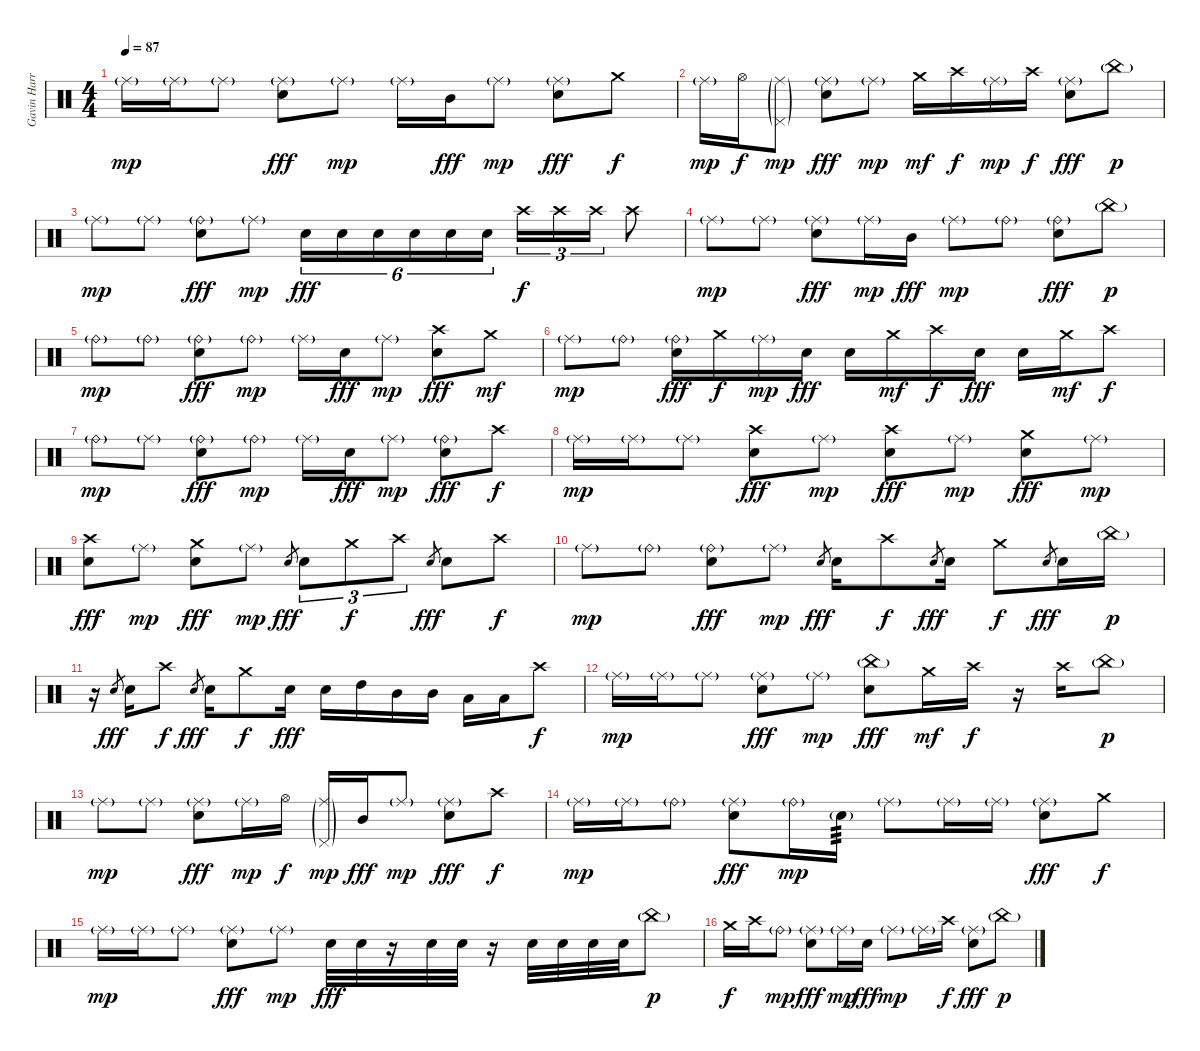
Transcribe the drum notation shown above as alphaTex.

\track ("Gavin Harrison Drums" "Gavin Harr") {instrument percussion}
\staff {score}
\articulation defaults
\ts (4 4)
\tempo 87
\clef neutral
\ks aminor "Ride (middle)"{g}.16{dy mp} "Ride (middle)"{g}.16 "Ride (middle)"{g}.8
("Ride (middle)"{g} "Electric Snare (hit)").8{dy fff} "Ride (middle)"{g}.8{dy mp} "Ride (middle)"{g}.16 "Mid Tom (hit)".16{dy fff} "Ride (middle)"{g}.8{dy mp} ("Ride (middle)"{g} "Electric Snare (hit)").8{dy fff} "Crash medium (hit)".8{dy f} |
"Ride (middle)"{g}.16{dy mp} "Hi-Hat (open)".16{dy f} ("Ride (middle)"{g} "Pedal Hi-Hat (hit)"{g}).8{dy mp} ("Ride (middle)"{g} "Electric Snare (hit)").8{dy fff} "Ride (middle)"{g}.8{dy mp} "Crash medium (hit)".16{dy mf} "Crash high (hit)".16{dy f} "Ride (middle)"{g}.16{dy mp} "Crash high (hit)".16{dy f} ("Ride (middle)"{g} "Electric Snare (hit)").8{dy fff} "China (hit)"{g}.8{dy p} |
"Ride (middle)"{g}.8{dy mp} "Ride (middle)"{g}.8 ("Ride (bell)"{g} "Electric Snare (hit)").8{dy fff} "Ride (middle)"{g}.8{dy mp} "Electric Snare (hit)".16{tu (6 4) dy fff} "Electric Snare (hit)".16{tu (6 4)} "Electric Snare (hit)".16{tu (6 4)} "Electric Snare (hit)".16{tu (6 4)} "Electric Snare (hit)".16{tu (6 4)} "Electric Snare (hit)".16{tu (6 4)} "Crash high (hit)".16{tu (3 2) dy f} "Crash high (hit)".16{tu (3 2)} "Crash high (hit)".16{tu (3 2)} "Crash high (hit)".8 |
"Ride (middle)"{g}.8{dy mp} "Ride (middle)"{g}.8 ("Ride (middle)"{g} "Electric Snare (hit)").8{dy fff} "Ride (middle)"{g}.16{dy mp} "Mid Tom (hit)".16{dy fff} "Ride (middle)"{g}.8{dy mp} "Ride (bell)"{g}.8 ("Ride (bell)"{g} "Electric Snare (hit)").8{dy fff} "China (hit)"{g}.8{dy p} |
"Ride (bell)"{g}.8{dy mp} "Ride (bell)"{g}.8 ("Ride (bell)"{g} "Electric Snare (hit)").8{dy fff} "Ride (bell)"{g}.8{dy mp} "Ride (middle)"{g}.16 "Electric Snare (hit)".16{dy fff} "Ride (middle)"{g}.8{dy mp} ("Crash high (hit)" "Electric Snare (hit)").8{dy fff} "Crash medium (hit)".8{dy mf} |
"Ride (middle)"{g}.8{dy mp} "Ride (bell)"{g}.8 ("Ride (bell)"{g} "Electric Snare (hit)").16{dy fff} "Crash medium (hit)".16{dy f} "Ride (middle)"{g}.16{dy mp} "Electric Snare (hit)".16{dy fff} "Electric Snare (hit)".16 "Crash medium (hit)".16{dy mf} "Crash high (hit)".16{dy f} "Electric Snare (hit)".16{dy fff} "Electric Snare (hit)".16 "Crash medium (hit)".16{dy mf} "Crash high (hit)".8{dy f} |
"Ride (bell)"{g}.8{dy mp} "Ride (middle)"{g}.8 ("Ride (bell)"{g} "Electric Snare (hit)").8{dy fff} "Ride (bell)"{g}.8{dy mp} "Ride (middle)"{g}.16 "Electric Snare (hit)".16{dy fff} "Ride (middle)"{g}.8{dy mp} ("Ride (bell)"{g} "Electric Snare (hit)").8{dy fff} "Crash high (hit)".8{dy f} |
"Ride (middle)"{g}.16{dy mp} "Ride (middle)"{g}.16 "Ride (middle)"{g}.8 ("Crash high (hit)" "Electric Snare (hit)").8{dy fff} "Ride (middle)"{g}.8{dy mp} ("Crash high (hit)" "Electric Snare (hit)").8{dy fff} "Ride (middle)"{g}.8{dy mp} ("Crash medium (hit)" "Electric Snare (hit)").8{dy fff} "Ride (middle)"{g}.8{dy mp} |
("Crash high (hit)" "Electric Snare (hit)").8{dy fff} "Ride (middle)"{g}.8{dy mp} ("Crash medium (hit)" "Electric Snare (hit)").8{dy fff} "Ride (middle)"{g}.8{dy mp} "Electric Snare (hit)".8{gr dy fff} "Electric Snare (hit)".8{tu (3 2)} "Crash medium (hit)".8{tu (3 2) dy f} "Crash high (hit)".8{tu (3 2)} "Electric Snare (hit)".8{gr dy fff} "Electric Snare (hit)".8 "Crash high (hit)".8{dy f} |
"Ride (middle)"{g}.8{dy mp} "Ride (bell)"{g}.8 ("Ride (bell)"{g} "Electric Snare (hit)").8{dy fff} "Ride (middle)"{g}.8{dy mp} "Electric Snare (hit)".8{gr dy fff} "Electric Snare (hit)".16 "Crash high (hit)".8{dy f} "Electric Snare (hit)".8{gr dy fff} "Electric Snare (hit)".16 "Crash medium (hit)".8{dy f} "Electric Snare (hit)".8{gr dy fff} "Electric Snare (hit)".16 "China (hit)"{g}.16{dy p} |
r.16 "Electric Snare (hit)".8{gr dy fff} "Electric Snare (hit)".16 "Crash high (hit)".8{dy f} "Electric Snare (hit)".8{gr dy fff} "Electric Snare (hit)".16 "Crash medium (hit)".8{dy f} "Electric Snare (hit)".16{dy fff} "Electric Snare (hit)".16 "High Tom (hit)".16 "Mid Tom (hit)".16 "Mid Tom (hit)".16 "Low Tom (hit)".16 "Low Tom (hit)".16 "Crash high (hit)".8{dy f} |
"Ride (middle)"{g}.16{dy mp} "Ride (middle)"{g}.16 "Ride (middle)"{g}.8 ("Ride (middle)"{g} "Electric Snare (hit)").8{dy fff} "Ride (middle)"{g}.8{dy mp} ("China (hit)"{g} "Electric Snare (hit)").8{dy fff} "Crash medium (hit)".16{dy mf} "Crash high (hit)".16{dy f} r.16 "Crash high (hit)".16 "China (hit)"{g}.8{dy p} |
"Ride (middle)"{g}.8{dy mp} "Ride (middle)"{g}.8 ("Ride (middle)"{g} "Electric Snare (hit)").8{dy fff} "Ride (middle)"{g}.16{dy mp} "Hi-Hat (open)".16{dy f} ("Ride (middle)"{g} "Pedal Hi-Hat (hit)"{g}).16{dy mp} "Mid Tom (hit)".16{dy fff} "Ride (middle)"{g}.8{dy mp} ("Ride (middle)"{g} "Electric Snare (hit)").8{dy fff} "Crash high (hit)".8{dy f} |
"Ride (middle)"{g}.16{dy mp} "Ride (middle)"{g}.16 "Ride (bell)"{g}.8 ("Ride (middle)"{g} "Electric Snare (hit)").8{dy fff} "Ride (bell)"{g}.16{dy mp} "Electric Snare (hit)"{g}.16{tp 3} "Ride (middle)"{g}.8 "Ride (middle)"{g}.16 "Ride (middle)"{g}.16 ("Ride (middle)"{g} "Electric Snare (hit)").8{dy fff} "Crash medium (hit)".8{dy f} |
"Ride (middle)"{g}.16{dy mp} "Ride (middle)"{g}.16 "Ride (middle)"{g}.8 ("Ride (middle)"{g} "Electric Snare (hit)").8{dy fff} "Ride (middle)"{g}.8{dy mp} "Electric Snare (hit)".32{dy fff} "Electric Snare (hit)".32 r.16 "Electric Snare (hit)".32 "Electric Snare (hit)".32 r.16 "Electric Snare (hit)".32 "Electric Snare (hit)".32 "Electric Snare (hit)".32 "Electric Snare (hit)".32 "China (hit)"{g}.8{dy p} |
"Crash medium (hit)".16{dy f} "Crash high (hit)".16 "Ride (bell)"{g}.8{dy mp} ("Ride (middle)"{g} "Electric Snare (hit)").8{dy fff} "Ride (middle)"{g}.16{dy mp} "Electric Snare (hit)".16{dy fff} "Ride (middle)"{g}.8{dy mp} "Ride (middle)"{g}.16 "Crash high (hit)".16{dy f} ("Ride (middle)"{g} "Electric Snare (hit)").8{dy fff} "China (hit)"{g}.8{dy p}
